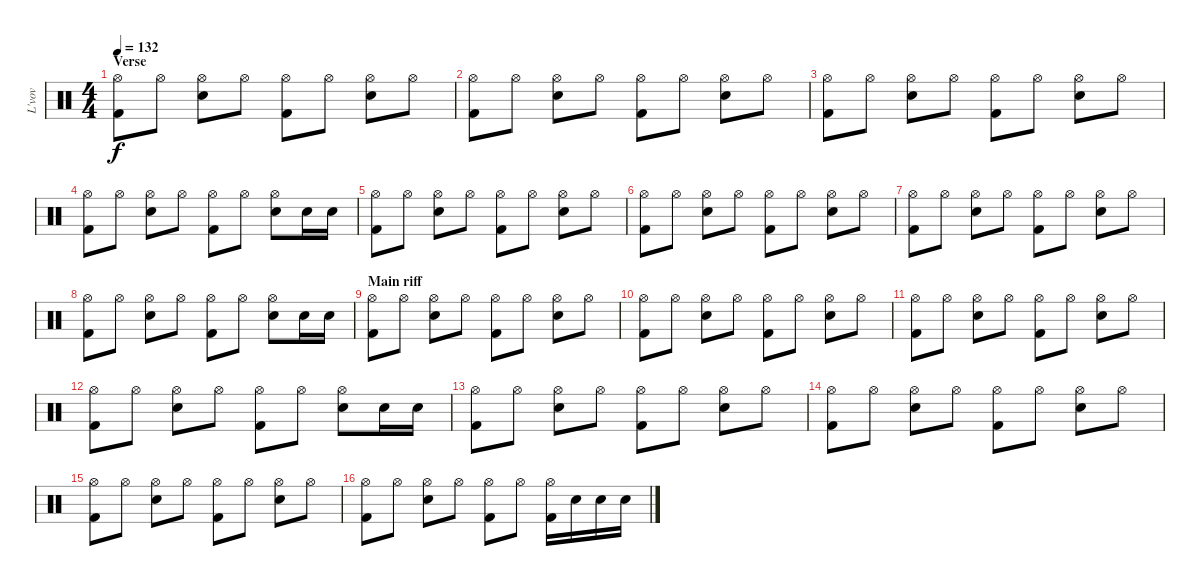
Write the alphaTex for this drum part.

\track ("L'vov" "L'vov") {instrument percussion}
\staff {score}
\articulation defaults
\ts (4 4)
\section ("" "Verse")
\tempo 132
\clef neutral
\ks c
("Hi-Hat (open)" "Kick (hit) 2").8{dy f} "Hi-Hat (open)".8 ("Hi-Hat (open)" "Snare (hit) 2").8 "Hi-Hat (open)".8 ("Hi-Hat (open)" "Kick (hit) 2").8 "Hi-Hat (open)".8 ("Hi-Hat (open)" "Snare (hit) 2").8 "Hi-Hat (open)".8 |
("Hi-Hat (open)" "Kick (hit) 2").8 "Hi-Hat (open)".8 ("Hi-Hat (open)" "Snare (hit) 2").8 "Hi-Hat (open)".8 ("Hi-Hat (open)" "Kick (hit) 2").8 "Hi-Hat (open)".8 ("Hi-Hat (open)" "Snare (hit) 2").8 "Hi-Hat (open)".8 |
("Hi-Hat (open)" "Kick (hit) 2").8 "Hi-Hat (open)".8 ("Hi-Hat (open)" "Snare (hit) 2").8 "Hi-Hat (open)".8 ("Hi-Hat (open)" "Kick (hit) 2").8 "Hi-Hat (open)".8 ("Hi-Hat (open)" "Snare (hit) 2").8 "Hi-Hat (open)".8 |
("Hi-Hat (open)" "Kick (hit) 2").8 "Hi-Hat (open)".8 ("Hi-Hat (open)" "Snare (hit) 2").8 "Hi-Hat (open)".8 ("Hi-Hat (open)" "Kick (hit) 2").8 "Hi-Hat (open)".8 ("Hi-Hat (open)" "Snare (hit) 2").8 "Snare (hit) 2".16 "Snare (hit) 2".16 |
("Hi-Hat (open)" "Kick (hit) 2").8 "Hi-Hat (open)".8 ("Hi-Hat (open)" "Snare (hit) 2").8 "Hi-Hat (open)".8 ("Hi-Hat (open)" "Kick (hit) 2").8 "Hi-Hat (open)".8 ("Hi-Hat (open)" "Snare (hit) 2").8 "Hi-Hat (open)".8 |
("Hi-Hat (open)" "Kick (hit) 2").8 "Hi-Hat (open)".8 ("Hi-Hat (open)" "Snare (hit) 2").8 "Hi-Hat (open)".8 ("Hi-Hat (open)" "Kick (hit) 2").8 "Hi-Hat (open)".8 ("Hi-Hat (open)" "Snare (hit) 2").8 "Hi-Hat (open)".8 |
("Hi-Hat (open)" "Kick (hit) 2").8 "Hi-Hat (open)".8 ("Hi-Hat (open)" "Snare (hit) 2").8 "Hi-Hat (open)".8 ("Hi-Hat (open)" "Kick (hit) 2").8 "Hi-Hat (open)".8 ("Hi-Hat (open)" "Snare (hit) 2").8 "Hi-Hat (open)".8 |
("Hi-Hat (open)" "Kick (hit) 2").8 "Hi-Hat (open)".8 ("Hi-Hat (open)" "Snare (hit) 2").8 "Hi-Hat (open)".8 ("Hi-Hat (open)" "Kick (hit) 2").8 "Hi-Hat (open)".8 ("Hi-Hat (open)" "Snare (hit) 2").8 "Snare (hit) 2".16 "Snare (hit) 2".16 |
\section ("" "Main riff")
("Hi-Hat (open)" "Kick (hit) 2").8 "Hi-Hat (open)".8 ("Hi-Hat (open)" "Snare (hit) 2").8 "Hi-Hat (open)".8 ("Hi-Hat (open)" "Kick (hit) 2").8 "Hi-Hat (open)".8 ("Hi-Hat (open)" "Snare (hit) 2").8 "Hi-Hat (open)".8 |
("Hi-Hat (open)" "Kick (hit) 2").8 "Hi-Hat (open)".8 ("Hi-Hat (open)" "Snare (hit) 2").8 "Hi-Hat (open)".8 ("Hi-Hat (open)" "Kick (hit) 2").8 "Hi-Hat (open)".8 ("Hi-Hat (open)" "Snare (hit) 2").8 "Hi-Hat (open)".8 |
("Hi-Hat (open)" "Kick (hit) 2").8 "Hi-Hat (open)".8 ("Hi-Hat (open)" "Snare (hit) 2").8 "Hi-Hat (open)".8 ("Hi-Hat (open)" "Kick (hit) 2").8 "Hi-Hat (open)".8 ("Hi-Hat (open)" "Snare (hit) 2").8 "Hi-Hat (open)".8 |
("Hi-Hat (open)" "Kick (hit) 2").8 "Hi-Hat (open)".8 ("Hi-Hat (open)" "Snare (hit) 2").8 "Hi-Hat (open)".8 ("Hi-Hat (open)" "Kick (hit) 2").8 "Hi-Hat (open)".8 ("Hi-Hat (open)" "Snare (hit) 2").8 "Snare (hit) 2".16 "Snare (hit) 2".16 |
("Hi-Hat (open)" "Kick (hit) 2").8 "Hi-Hat (open)".8 ("Hi-Hat (open)" "Snare (hit) 2").8 "Hi-Hat (open)".8 ("Hi-Hat (open)" "Kick (hit) 2").8 "Hi-Hat (open)".8 ("Hi-Hat (open)" "Snare (hit) 2").8 "Hi-Hat (open)".8 |
("Hi-Hat (open)" "Kick (hit) 2").8 "Hi-Hat (open)".8 ("Hi-Hat (open)" "Snare (hit) 2").8 "Hi-Hat (open)".8 ("Hi-Hat (open)" "Kick (hit) 2").8 "Hi-Hat (open)".8 ("Hi-Hat (open)" "Snare (hit) 2").8 "Hi-Hat (open)".8 |
("Hi-Hat (open)" "Kick (hit) 2").8 "Hi-Hat (open)".8 ("Hi-Hat (open)" "Snare (hit) 2").8 "Hi-Hat (open)".8 ("Hi-Hat (open)" "Kick (hit) 2").8 "Hi-Hat (open)".8 ("Hi-Hat (open)" "Snare (hit) 2").8 "Hi-Hat (open)".8 |
("Hi-Hat (open)" "Kick (hit) 2").8 "Hi-Hat (open)".8 ("Hi-Hat (open)" "Snare (hit) 2").8 "Hi-Hat (open)".8 ("Hi-Hat (open)" "Kick (hit) 2").8 "Hi-Hat (open)".8 ("Hi-Hat (open)" "Kick (hit) 2").16 "Snare (hit) 2".16 "Snare (hit) 2".16 "Snare (hit) 2".16
